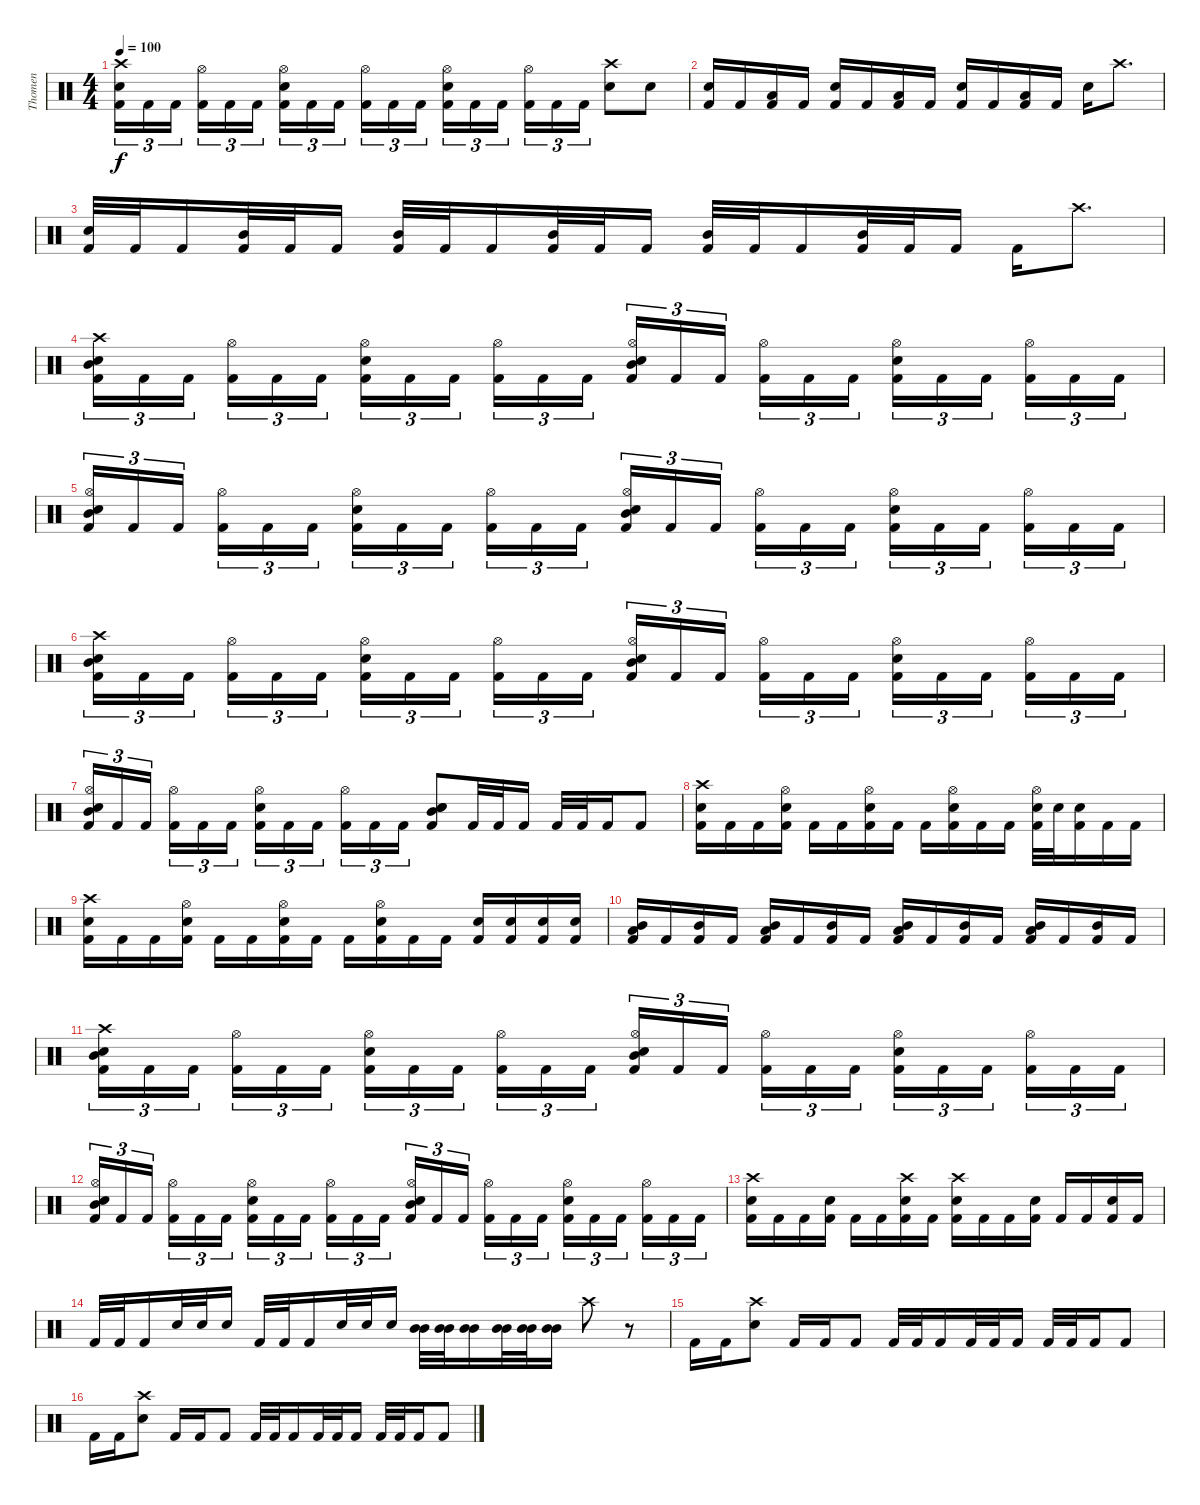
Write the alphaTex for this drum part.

\track ("Thomen" "Thomen") {instrument percussion}
\staff {score}
\articulation defaults
\ts (4 4)
\tempo 100
\clef neutral
\ks c
("Crash high (hit)" "Snare (hit) 2" "Kick (hit) 2").16{tu (3 2) dy f} "Kick (hit) 2".16{tu (3 2)} "Kick (hit) 2".16{tu (3 2) beam splitsecondary} ("Hi-Hat (open)" "Kick (hit) 2").16{tu (3 2)} "Kick (hit) 2".16{tu (3 2)} "Kick (hit) 2".16{tu (3 2)} ("Hi-Hat (open)" "Snare (hit) 2" "Kick (hit) 2").16{tu (3 2)} "Kick (hit) 2".16{tu (3 2)} "Kick (hit) 2".16{tu (3 2) beam splitsecondary} ("Hi-Hat (open)" "Kick (hit) 2").16{tu (3 2)} "Kick (hit) 2".16{tu (3 2)} "Kick (hit) 2".16{tu (3 2)} ("Hi-Hat (open)" "Snare (hit) 2" "Kick (hit) 2").16{tu (3 2)} "Kick (hit) 2".16{tu (3 2)} "Kick (hit) 2".16{tu (3 2) beam splitsecondary} ("Hi-Hat (open)" "Kick (hit) 2").16{tu (3 2)} "Kick (hit) 2".16{tu (3 2)} "Kick (hit) 2".16{tu (3 2)} ("Crash high (hit)" "Snare (hit) 2").8 "Snare (hit) 2".8 |
("Snare (hit) 2" "Kick (hit) 2").16 "Kick (hit) 2".16 ("Low Tom (hit)" "Kick (hit) 2").16 "Kick (hit) 2".16 ("Snare (hit) 2" "Kick (hit) 2").16 "Kick (hit) 2".16 ("Low Tom (hit)" "Kick (hit) 2").16 "Kick (hit) 2".16 ("Snare (hit) 2" "Kick (hit) 2").16 "Kick (hit) 2".16 ("Low Tom (hit)" "Kick (hit) 2").16 "Kick (hit) 2".16 "Snare (hit) 2".16 "Crash high (hit)".8{d} |
("Snare (hit) 2" "Kick (hit) 2").32 "Kick (hit) 2".32 "Kick (hit) 2".16 ("Mid Tom (hit)" "Kick (hit) 2").32 "Kick (hit) 2".32 "Kick (hit) 2".16 ("Mid Tom (hit)" "Kick (hit) 2").32 "Kick (hit) 2".32 "Kick (hit) 2".16 ("Mid Tom (hit)" "Kick (hit) 2").32 "Kick (hit) 2".32 "Kick (hit) 2".16 ("Mid Tom (hit)" "Kick (hit) 2").32 "Kick (hit) 2".32 "Kick (hit) 2".16 ("Mid Tom (hit)" "Kick (hit) 2").32 "Kick (hit) 2".32 "Kick (hit) 2".16 "Kick (hit) 2".16 "Crash high (hit)".8{d} |
("Crash high (hit)" "Snare (hit) 2" "Kick (hit) 2" "Mid Tom (hit)").16{tu (3 2)} "Kick (hit) 2".16{tu (3 2)} "Kick (hit) 2".16{tu (3 2) beam splitsecondary} ("Hi-Hat (open)" "Kick (hit) 2").16{tu (3 2)} "Kick (hit) 2".16{tu (3 2)} "Kick (hit) 2".16{tu (3 2)} ("Hi-Hat (open)" "Snare (hit) 2" "Kick (hit) 2").16{tu (3 2)} "Kick (hit) 2".16{tu (3 2)} "Kick (hit) 2".16{tu (3 2) beam splitsecondary} ("Hi-Hat (open)" "Kick (hit) 2").16{tu (3 2)} "Kick (hit) 2".16{tu (3 2)} "Kick (hit) 2".16{tu (3 2)} ("Hi-Hat (open)" "Snare (hit) 2" "Kick (hit) 2" "Mid Tom (hit)").16{tu (3 2)} "Kick (hit) 2".16{tu (3 2)} "Kick (hit) 2".16{tu (3 2) beam splitsecondary} ("Hi-Hat (open)" "Kick (hit) 2").16{tu (3 2)} "Kick (hit) 2".16{tu (3 2)} "Kick (hit) 2".16{tu (3 2)} ("Hi-Hat (open)" "Snare (hit) 2" "Kick (hit) 2").16{tu (3 2)} "Kick (hit) 2".16{tu (3 2)} "Kick (hit) 2".16{tu (3 2) beam splitsecondary} ("Hi-Hat (open)" "Kick (hit) 2").16{tu (3 2)} "Kick (hit) 2".16{tu (3 2)} "Kick (hit) 2".16{tu (3 2)} |
("Hi-Hat (open)" "Snare (hit) 2" "Kick (hit) 2" "Mid Tom (hit)").16{tu (3 2)} "Kick (hit) 2".16{tu (3 2)} "Kick (hit) 2".16{tu (3 2) beam splitsecondary} ("Hi-Hat (open)" "Kick (hit) 2").16{tu (3 2)} "Kick (hit) 2".16{tu (3 2)} "Kick (hit) 2".16{tu (3 2)} ("Hi-Hat (open)" "Snare (hit) 2" "Kick (hit) 2").16{tu (3 2)} "Kick (hit) 2".16{tu (3 2)} "Kick (hit) 2".16{tu (3 2) beam splitsecondary} ("Hi-Hat (open)" "Kick (hit) 2").16{tu (3 2)} "Kick (hit) 2".16{tu (3 2)} "Kick (hit) 2".16{tu (3 2)} ("Hi-Hat (open)" "Snare (hit) 2" "Kick (hit) 2" "Mid Tom (hit)").16{tu (3 2)} "Kick (hit) 2".16{tu (3 2)} "Kick (hit) 2".16{tu (3 2) beam splitsecondary} ("Hi-Hat (open)" "Kick (hit) 2").16{tu (3 2)} "Kick (hit) 2".16{tu (3 2)} "Kick (hit) 2".16{tu (3 2)} ("Hi-Hat (open)" "Snare (hit) 2" "Kick (hit) 2").16{tu (3 2)} "Kick (hit) 2".16{tu (3 2)} "Kick (hit) 2".16{tu (3 2) beam splitsecondary} ("Hi-Hat (open)" "Kick (hit) 2").16{tu (3 2)} "Kick (hit) 2".16{tu (3 2)} "Kick (hit) 2".16{tu (3 2)} |
("Crash high (hit)" "Snare (hit) 2" "Kick (hit) 2" "Mid Tom (hit)").16{tu (3 2)} "Kick (hit) 2".16{tu (3 2)} "Kick (hit) 2".16{tu (3 2) beam splitsecondary} ("Hi-Hat (open)" "Kick (hit) 2").16{tu (3 2)} "Kick (hit) 2".16{tu (3 2)} "Kick (hit) 2".16{tu (3 2)} ("Hi-Hat (open)" "Snare (hit) 2" "Kick (hit) 2").16{tu (3 2)} "Kick (hit) 2".16{tu (3 2)} "Kick (hit) 2".16{tu (3 2) beam splitsecondary} ("Hi-Hat (open)" "Kick (hit) 2").16{tu (3 2)} "Kick (hit) 2".16{tu (3 2)} "Kick (hit) 2".16{tu (3 2)} ("Hi-Hat (open)" "Snare (hit) 2" "Kick (hit) 2" "Mid Tom (hit)").16{tu (3 2)} "Kick (hit) 2".16{tu (3 2)} "Kick (hit) 2".16{tu (3 2) beam splitsecondary} ("Hi-Hat (open)" "Kick (hit) 2").16{tu (3 2)} "Kick (hit) 2".16{tu (3 2)} "Kick (hit) 2".16{tu (3 2)} ("Hi-Hat (open)" "Snare (hit) 2" "Kick (hit) 2").16{tu (3 2)} "Kick (hit) 2".16{tu (3 2)} "Kick (hit) 2".16{tu (3 2) beam splitsecondary} ("Hi-Hat (open)" "Kick (hit) 2").16{tu (3 2)} "Kick (hit) 2".16{tu (3 2)} "Kick (hit) 2".16{tu (3 2)} |
("Hi-Hat (open)" "Snare (hit) 2" "Kick (hit) 2" "Mid Tom (hit)").16{tu (3 2)} "Kick (hit) 2".16{tu (3 2)} "Kick (hit) 2".16{tu (3 2) beam splitsecondary} ("Hi-Hat (open)" "Kick (hit) 2").16{tu (3 2)} "Kick (hit) 2".16{tu (3 2)} "Kick (hit) 2".16{tu (3 2)} ("Hi-Hat (open)" "Snare (hit) 2" "Kick (hit) 2").16{tu (3 2)} "Kick (hit) 2".16{tu (3 2)} "Kick (hit) 2".16{tu (3 2) beam splitsecondary} ("Hi-Hat (open)" "Kick (hit) 2").16{tu (3 2)} "Kick (hit) 2".16{tu (3 2)} "Kick (hit) 2".16{tu (3 2)} ("Electric Snare (hit)" "Snare (hit) 2" "Kick (hit) 2" "Mid Tom (hit)").8 "Kick (hit) 2".32 "Kick (hit) 2".32 "Kick (hit) 2".16 "Kick (hit) 2".32 "Kick (hit) 2".32 "Kick (hit) 2".16 "Kick (hit) 2".8 |
("Crash high (hit)" "Snare (hit) 2" "Kick (hit) 2").16 "Kick (hit) 2".16 "Kick (hit) 2".16 ("Hi-Hat (open)" "Snare (hit) 2" "Kick (hit) 2").16 "Kick (hit) 2".16 "Kick (hit) 2".16 ("Hi-Hat (open)" "Snare (hit) 2" "Kick (hit) 2").16 "Kick (hit) 2".16 "Kick (hit) 2".16 ("Hi-Hat (open)" "Snare (hit) 2" "Kick (hit) 2").16 "Kick (hit) 2".16 "Kick (hit) 2".16 ("Hi-Hat (open)" "Snare (hit) 2" "Kick (hit) 2").32 "Snare (hit) 2".32 ("Snare (hit) 2" "Kick (hit) 2").16 "Kick (hit) 2".16 "Kick (hit) 2".16 |
("Crash high (hit)" "Snare (hit) 2" "Kick (hit) 2").16 "Kick (hit) 2".16 "Kick (hit) 2".16 ("Hi-Hat (open)" "Snare (hit) 2" "Kick (hit) 2").16 "Kick (hit) 2".16 "Kick (hit) 2".16 ("Hi-Hat (open)" "Snare (hit) 2" "Kick (hit) 2").16 "Kick (hit) 2".16 "Kick (hit) 2".16 ("Hi-Hat (open)" "Snare (hit) 2" "Kick (hit) 2").16 "Kick (hit) 2".16 "Kick (hit) 2".16 ("Snare (hit) 2" "Kick (hit) 2").16 ("Snare (hit) 2" "Kick (hit) 2").16 ("Snare (hit) 2" "Kick (hit) 2").16 ("Snare (hit) 2" "Kick (hit) 2").16 |
("Low Tom (hit)" "Mid Tom (hit)" "Kick (hit) 2").16 "Kick (hit) 2".16 ("Mid Tom (hit)" "Kick (hit) 2").16 "Kick (hit) 2".16 ("Low Tom (hit)" "Mid Tom (hit)" "Kick (hit) 2").16 "Kick (hit) 2".16 ("Mid Tom (hit)" "Kick (hit) 2").16 "Kick (hit) 2".16 ("Low Tom (hit)" "Mid Tom (hit)" "Kick (hit) 2").16 "Kick (hit) 2".16 ("Mid Tom (hit)" "Kick (hit) 2").16 "Kick (hit) 2".16 ("Low Tom (hit)" "Mid Tom (hit)" "Kick (hit) 2").16 "Kick (hit) 2".16 ("Mid Tom (hit)" "Kick (hit) 2").16 "Kick (hit) 2".16 |
("Crash high (hit)" "Snare (hit) 2" "Kick (hit) 2" "Mid Tom (hit)").16{tu (3 2)} "Kick (hit) 2".16{tu (3 2)} "Kick (hit) 2".16{tu (3 2) beam splitsecondary} ("Hi-Hat (open)" "Kick (hit) 2").16{tu (3 2)} "Kick (hit) 2".16{tu (3 2)} "Kick (hit) 2".16{tu (3 2)} ("Hi-Hat (open)" "Snare (hit) 2" "Kick (hit) 2").16{tu (3 2)} "Kick (hit) 2".16{tu (3 2)} "Kick (hit) 2".16{tu (3 2) beam splitsecondary} ("Hi-Hat (open)" "Kick (hit) 2").16{tu (3 2)} "Kick (hit) 2".16{tu (3 2)} "Kick (hit) 2".16{tu (3 2)} ("Hi-Hat (open)" "Snare (hit) 2" "Kick (hit) 2" "Mid Tom (hit)").16{tu (3 2)} "Kick (hit) 2".16{tu (3 2)} "Kick (hit) 2".16{tu (3 2) beam splitsecondary} ("Hi-Hat (open)" "Kick (hit) 2").16{tu (3 2)} "Kick (hit) 2".16{tu (3 2)} "Kick (hit) 2".16{tu (3 2)} ("Hi-Hat (open)" "Snare (hit) 2" "Kick (hit) 2").16{tu (3 2)} "Kick (hit) 2".16{tu (3 2)} "Kick (hit) 2".16{tu (3 2) beam splitsecondary} ("Hi-Hat (open)" "Kick (hit) 2").16{tu (3 2)} "Kick (hit) 2".16{tu (3 2)} "Kick (hit) 2".16{tu (3 2)} |
("Hi-Hat (open)" "Snare (hit) 2" "Kick (hit) 2" "Mid Tom (hit)").16{tu (3 2)} "Kick (hit) 2".16{tu (3 2)} "Kick (hit) 2".16{tu (3 2) beam splitsecondary} ("Hi-Hat (open)" "Kick (hit) 2").16{tu (3 2)} "Kick (hit) 2".16{tu (3 2)} "Kick (hit) 2".16{tu (3 2)} ("Hi-Hat (open)" "Snare (hit) 2" "Kick (hit) 2").16{tu (3 2)} "Kick (hit) 2".16{tu (3 2)} "Kick (hit) 2".16{tu (3 2) beam splitsecondary} ("Hi-Hat (open)" "Kick (hit) 2").16{tu (3 2)} "Kick (hit) 2".16{tu (3 2)} "Kick (hit) 2".16{tu (3 2)} ("Hi-Hat (open)" "Snare (hit) 2" "Kick (hit) 2" "Mid Tom (hit)").16{tu (3 2)} "Kick (hit) 2".16{tu (3 2)} "Kick (hit) 2".16{tu (3 2) beam splitsecondary} ("Hi-Hat (open)" "Kick (hit) 2").16{tu (3 2)} "Kick (hit) 2".16{tu (3 2)} "Kick (hit) 2".16{tu (3 2)} ("Hi-Hat (open)" "Snare (hit) 2" "Kick (hit) 2").16{tu (3 2)} "Kick (hit) 2".16{tu (3 2)} "Kick (hit) 2".16{tu (3 2) beam splitsecondary} ("Hi-Hat (open)" "Kick (hit) 2").16{tu (3 2)} "Kick (hit) 2".16{tu (3 2)} "Kick (hit) 2".16{tu (3 2)} |
("Crash high (hit)" "Snare (hit) 2" "Kick (hit) 2").16 "Kick (hit) 2".16 "Kick (hit) 2".16 ("Snare (hit) 2" "Kick (hit) 2").16 "Kick (hit) 2".16 "Kick (hit) 2".16 ("Crash high (hit)" "Snare (hit) 2" "Kick (hit) 2").16 "Kick (hit) 2".16 ("Crash high (hit)" "Snare (hit) 2" "Kick (hit) 2").16 "Kick (hit) 2".16 "Kick (hit) 2".16 ("Snare (hit) 2" "Kick (hit) 2").16 "Kick (hit) 2".16 "Kick (hit) 2".16 ("Snare (hit) 2" "Kick (hit) 2").16 "Kick (hit) 2".16 |
"Kick (hit) 2".32 "Kick (hit) 2".32 "Kick (hit) 2".16 "Snare (hit) 2".32 "Snare (hit) 2".32 "Snare (hit) 2".16 "Kick (hit) 2".32 "Kick (hit) 2".32 "Kick (hit) 2".16 "Snare (hit) 2".32 "Snare (hit) 2".32 "Snare (hit) 2".16 ("Mid Tom (hit)" "Mid Tom (hit)").32 ("Mid Tom (hit)" "Mid Tom (hit)").32 ("Mid Tom (hit)" "Mid Tom (hit)").16 ("Mid Tom (hit)" "Mid Tom (hit)").32 ("Mid Tom (hit)" "Mid Tom (hit)").32 ("Mid Tom (hit)" "Mid Tom (hit)").16 "Crash high (hit)".8 r.8 |
"Kick (hit) 2".16 "Kick (hit) 2".16 ("Crash high (hit)" "Snare (hit) 2").8 "Kick (hit) 2".16 "Kick (hit) 2".16 "Kick (hit) 2".8 "Kick (hit) 2".32 "Kick (hit) 2".32 "Kick (hit) 2".16 "Kick (hit) 2".32 "Kick (hit) 2".32 "Kick (hit) 2".16 "Kick (hit) 2".32 "Kick (hit) 2".32 "Kick (hit) 2".16 "Kick (hit) 2".8 |
"Kick (hit) 2".16 "Kick (hit) 2".16 ("Crash high (hit)" "Snare (hit) 2").8 "Kick (hit) 2".16 "Kick (hit) 2".16 "Kick (hit) 2".8 "Kick (hit) 2".32 "Kick (hit) 2".32 "Kick (hit) 2".16 "Kick (hit) 2".32 "Kick (hit) 2".32 "Kick (hit) 2".16 "Kick (hit) 2".32 "Kick (hit) 2".32 "Kick (hit) 2".16 "Kick (hit) 2".8
